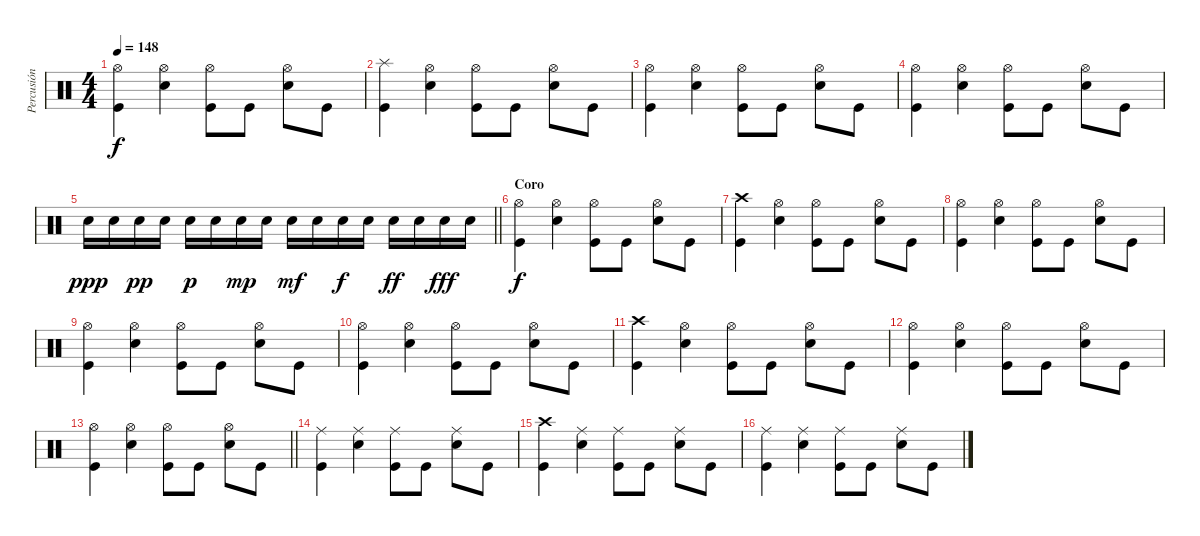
\track ("Percusión" "Percusión") {instrument percussion}
\staff {score}
\articulation defaults
\ts (4 4)
\tempo 148
\clef neutral
\ks c
("Hi-Hat (open)" "Kick (hit)").4{dy f} ("Hi-Hat (open)" "Electric Snare (hit)").4 ("Hi-Hat (open)" "Kick (hit)").8 "Kick (hit)".8 ("Hi-Hat (open)" "Electric Snare (hit)").8 "Kick (hit)".8 |
("Splash (hit)" "Kick (hit)").4 ("Hi-Hat (open)" "Electric Snare (hit)").4 ("Hi-Hat (open)" "Kick (hit)").8 "Kick (hit)".8 ("Hi-Hat (open)" "Electric Snare (hit)").8 "Kick (hit)".8 |
("Hi-Hat (open)" "Kick (hit)").4 ("Hi-Hat (open)" "Electric Snare (hit)").4 ("Hi-Hat (open)" "Kick (hit)").8 "Kick (hit)".8 ("Hi-Hat (open)" "Electric Snare (hit)").8 "Kick (hit)".8 |
("Hi-Hat (open)" "Kick (hit)").4 ("Hi-Hat (open)" "Electric Snare (hit)").4 ("Hi-Hat (open)" "Kick (hit)").8 "Kick (hit)".8 ("Hi-Hat (open)" "Electric Snare (hit)").8 "Kick (hit)".8 |
\barLineRight lightlight "Electric Snare (hit)".16{dy ppp} "Electric Snare (hit)".16 "Electric Snare (hit)".16{dy pp} "Electric Snare (hit)".16 "Electric Snare (hit)".16{dy p} "Electric Snare (hit)".16 "Electric Snare (hit)".16{dy mp} "Electric Snare (hit)".16 "Electric Snare (hit)".16{dy mf} "Electric Snare (hit)".16 "Electric Snare (hit)".16{dy f} "Electric Snare (hit)".16 "Electric Snare (hit)".16{dy ff} "Electric Snare (hit)".16 "Electric Snare (hit)".16{dy fff} "Electric Snare (hit)".16
|
\section ("" "Coro")
("Hi-Hat (open)" "Kick (hit)").4{dy f} ("Hi-Hat (open)" "Electric Snare (hit)").4 ("Hi-Hat (open)" "Kick (hit)").8 "Kick (hit)".8 ("Hi-Hat (open)" "Electric Snare (hit)").8 "Kick (hit)".8 |
("Crash high (hit)" "Kick (hit)").4 ("Hi-Hat (open)" "Electric Snare (hit)").4 ("Hi-Hat (open)" "Kick (hit)").8 "Kick (hit)".8 ("Hi-Hat (open)" "Electric Snare (hit)").8 "Kick (hit)".8 |
("Hi-Hat (open)" "Kick (hit)").4 ("Hi-Hat (open)" "Electric Snare (hit)").4 ("Hi-Hat (open)" "Kick (hit)").8 "Kick (hit)".8 ("Hi-Hat (open)" "Electric Snare (hit)").8 "Kick (hit)".8 |
("Hi-Hat (open)" "Kick (hit)").4 ("Hi-Hat (open)" "Electric Snare (hit)").4 ("Hi-Hat (open)" "Kick (hit)").8 "Kick (hit)".8 ("Hi-Hat (open)" "Electric Snare (hit)").8 "Kick (hit)".8 |
("Hi-Hat (open)" "Kick (hit)").4 ("Hi-Hat (open)" "Electric Snare (hit)").4 ("Hi-Hat (open)" "Kick (hit)").8 "Kick (hit)".8 ("Hi-Hat (open)" "Electric Snare (hit)").8 "Kick (hit)".8 |
("Crash high (hit)" "Kick (hit)").4 ("Hi-Hat (open)" "Electric Snare (hit)").4 ("Hi-Hat (open)" "Kick (hit)").8 "Kick (hit)".8 ("Hi-Hat (open)" "Electric Snare (hit)").8 "Kick (hit)".8 |
("Hi-Hat (open)" "Kick (hit)").4 ("Hi-Hat (open)" "Electric Snare (hit)").4 ("Hi-Hat (open)" "Kick (hit)").8 "Kick (hit)".8 ("Hi-Hat (open)" "Electric Snare (hit)").8 "Kick (hit)".8 |
\barLineRight lightlight
("Hi-Hat (open)" "Kick (hit)").4 ("Hi-Hat (open)" "Electric Snare (hit)").4 ("Hi-Hat (open)" "Kick (hit)").8 "Kick (hit)".8 ("Hi-Hat (open)" "Electric Snare (hit)").8 "Kick (hit)".8 |
\section ("" "")
("Ride (middle)" "Kick (hit)").4 ("Ride (middle)" "Electric Snare (hit)").4 ("Ride (middle)" "Kick (hit)").8 "Kick (hit)".8 ("Ride (middle)" "Electric Snare (hit)").8 "Kick (hit)".8 |
("Crash high (hit)" "Kick (hit)").4 ("Ride (middle)" "Electric Snare (hit)").4 ("Ride (middle)" "Kick (hit)").8 "Kick (hit)".8 ("Ride (middle)" "Electric Snare (hit)").8 "Kick (hit)".8 |
("Ride (middle)" "Kick (hit)").4 ("Ride (middle)" "Electric Snare (hit)").4 ("Ride (middle)" "Kick (hit)").8 "Kick (hit)".8 ("Ride (middle)" "Electric Snare (hit)").8 "Kick (hit)".8
